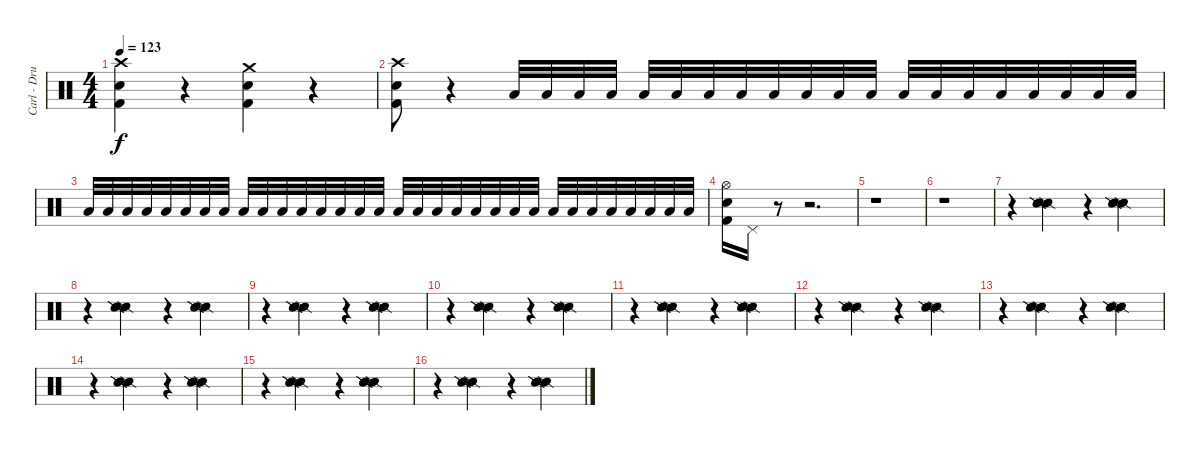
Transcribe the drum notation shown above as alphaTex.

\track ("Carl - Drums" "Carl - Dru") {instrument percussion}
\staff {score}
\articulation defaults
\ts (4 4)
\tempo 123
\clef neutral
\ks c
("Kick (hit) 2" "Electric Snare (hit)" "Crash high (hit)").4{dy f} r.4 ("Kick (hit) 2" "Electric Snare (hit)" "Crash medium (hit)").4 r.4 |
("Kick (hit) 2" "Electric Snare (hit)" "Crash high (hit)").8 r.4 "Low Floor Tom (hit)".32 "Low Floor Tom (hit)".32 "Low Floor Tom (hit)".32 "Low Floor Tom (hit)".32 "Low Floor Tom (hit)".32 "Low Floor Tom (hit)".32 "Low Floor Tom (hit)".32 "Low Floor Tom (hit)".32 "Low Floor Tom (hit)".32 "Low Floor Tom (hit)".32 "Low Floor Tom (hit)".32 "Low Floor Tom (hit)".32 "Low Floor Tom (hit)".32 "Low Floor Tom (hit)".32 "Low Floor Tom (hit)".32 "Low Floor Tom (hit)".32 "Low Floor Tom (hit)".32 "Low Floor Tom (hit)".32 "Low Floor Tom (hit)".32 "Low Floor Tom (hit)".32 |
"Low Floor Tom (hit)".32 "Low Floor Tom (hit)".32 "Low Floor Tom (hit)".32 "Low Floor Tom (hit)".32 "Low Floor Tom (hit)".32 "Low Floor Tom (hit)".32 "Low Floor Tom (hit)".32 "Low Floor Tom (hit)".32 "Low Floor Tom (hit)".32 "Low Floor Tom (hit)".32 "Low Floor Tom (hit)".32 "Low Floor Tom (hit)".32 "Low Floor Tom (hit)".32 "Low Floor Tom (hit)".32 "Low Floor Tom (hit)".32 "Low Floor Tom (hit)".32 "Low Floor Tom (hit)".32 "Low Floor Tom (hit)".32 "Low Floor Tom (hit)".32 "Low Floor Tom (hit)".32 "Low Floor Tom (hit)".32 "Low Floor Tom (hit)".32 "Low Floor Tom (hit)".32 "Low Floor Tom (hit)".32 "Low Floor Tom (hit)".32 "Low Floor Tom (hit)".32 "Low Floor Tom (hit)".32 "Low Floor Tom (hit)".32 "Low Floor Tom (hit)".32 "Low Floor Tom (hit)".32 "Low Floor Tom (hit)".32 "Low Floor Tom (hit)".32 |
("Hi-Hat (open)" "Electric Snare (hit)" "Kick (hit) 2").16 "Pedal Hi-Hat (hit)".16 r.8 r.2{d} |
r.1 |
r.1 |
r.4 ("Snare (side stick) 2" "Snare (side stick) 2" "Snare (side stick) 2").4 r.4 ("Snare (side stick) 2" "Snare (side stick) 2" "Snare (side stick) 2").4 |
r.4 ("Snare (side stick) 2" "Snare (side stick) 2" "Snare (side stick) 2").4 r.4 ("Snare (side stick) 2" "Snare (side stick) 2" "Snare (side stick) 2").4 |
r.4 ("Snare (side stick) 2" "Snare (side stick) 2" "Snare (side stick) 2").4 r.4 ("Snare (side stick) 2" "Snare (side stick) 2" "Snare (side stick) 2").4 |
r.4 ("Snare (side stick) 2" "Snare (side stick) 2" "Snare (side stick) 2").4 r.4 ("Snare (side stick) 2" "Snare (side stick) 2" "Snare (side stick) 2").4 |
r.4 ("Snare (side stick) 2" "Snare (side stick) 2" "Snare (side stick) 2").4 r.4 ("Snare (side stick) 2" "Snare (side stick) 2" "Snare (side stick) 2").4 |
r.4 ("Snare (side stick) 2" "Snare (side stick) 2" "Snare (side stick) 2").4 r.4 ("Snare (side stick) 2" "Snare (side stick) 2" "Snare (side stick) 2").4 |
r.4 ("Snare (side stick) 2" "Snare (side stick) 2" "Snare (side stick) 2").4 r.4 ("Snare (side stick) 2" "Snare (side stick) 2" "Snare (side stick) 2").4 |
r.4 ("Snare (side stick) 2" "Snare (side stick) 2" "Snare (side stick) 2").4 r.4 ("Snare (side stick) 2" "Snare (side stick) 2" "Snare (side stick) 2").4 |
r.4 ("Snare (side stick) 2" "Snare (side stick) 2" "Snare (side stick) 2").4 r.4 ("Snare (side stick) 2" "Snare (side stick) 2" "Snare (side stick) 2").4 |
r.4 ("Snare (side stick) 2" "Snare (side stick) 2" "Snare (side stick) 2").4 r.4 ("Snare (side stick) 2" "Snare (side stick) 2" "Snare (side stick) 2").4
